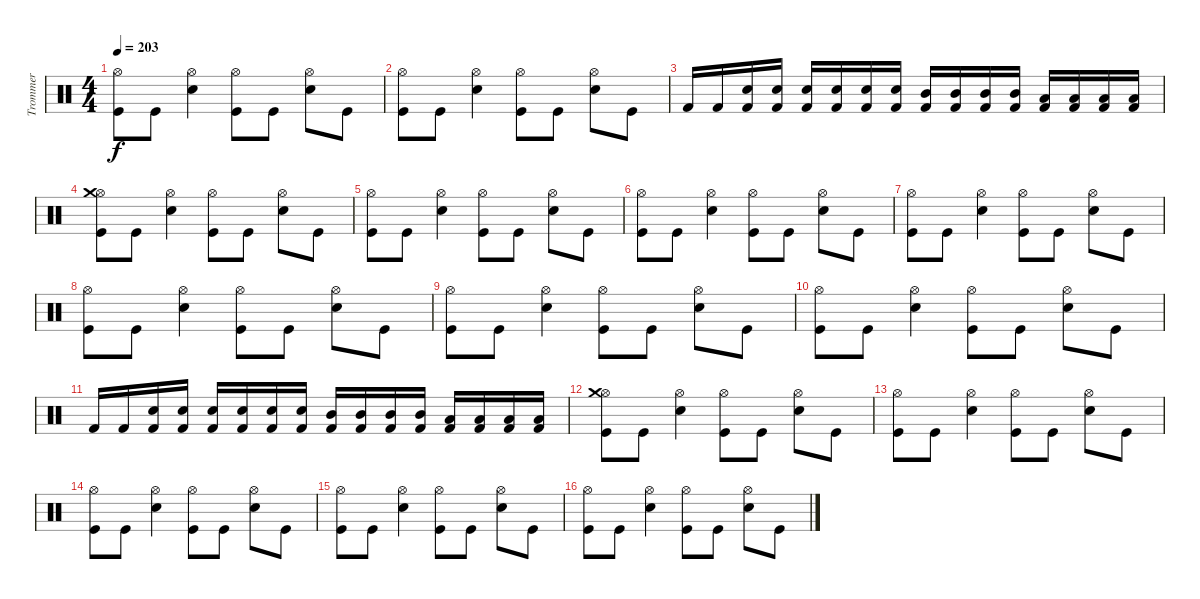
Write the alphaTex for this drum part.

\track ("Trommer" "Trommer") {instrument percussion}
\staff {score}
\articulation defaults
\ts (4 4)
\tempo 203
\clef neutral
\ks c
("Hi-Hat (open)" "Kick (hit)").8{dy f} "Kick (hit)".8 ("Hi-Hat (open)" "Snare (hit) 2").4 ("Hi-Hat (open)" "Kick (hit)").8 "Kick (hit)".8 ("Snare (hit) 2" "Hi-Hat (open)").8 "Kick (hit)".8 |
("Hi-Hat (open)" "Kick (hit)").8 "Kick (hit)".8 ("Hi-Hat (open)" "Snare (hit) 2").4 ("Hi-Hat (open)" "Kick (hit)").8 "Kick (hit)".8 ("Snare (hit) 2" "Hi-Hat (open)").8 "Kick (hit)".8 |
"Kick (hit) 2".16 "Kick (hit) 2".16 ("Snare (hit) 2" "Kick (hit) 2").16 ("Snare (hit) 2" "Kick (hit) 2").16 ("Snare (hit) 2" "Kick (hit) 2").16 ("Snare (hit) 2" "Kick (hit) 2").16 ("Snare (hit) 2" "Kick (hit) 2").16 ("Snare (hit) 2" "Kick (hit) 2").16 ("Mid Tom (hit)" "Kick (hit) 2").16 ("Mid Tom (hit)" "Kick (hit) 2").16 ("Mid Tom (hit)" "Kick (hit) 2").16 ("Mid Tom (hit)" "Kick (hit) 2").16 ("Low Tom (hit)" "Kick (hit) 2").16 ("Low Tom (hit)" "Kick (hit) 2").16 ("Low Tom (hit)" "Kick (hit) 2").16 ("Low Tom (hit)" "Kick (hit) 2").16 |
("Hi-Hat (open)" "Kick (hit)" "Crash medium (hit)").8 "Kick (hit)".8 ("Hi-Hat (open)" "Snare (hit) 2").4 ("Hi-Hat (open)" "Kick (hit)").8 "Kick (hit)".8 ("Snare (hit) 2" "Hi-Hat (open)").8 "Kick (hit)".8 |
("Hi-Hat (open)" "Kick (hit)").8 "Kick (hit)".8 ("Hi-Hat (open)" "Snare (hit) 2").4 ("Hi-Hat (open)" "Kick (hit)").8 "Kick (hit)".8 ("Snare (hit) 2" "Hi-Hat (open)").8 "Kick (hit)".8 |
("Hi-Hat (open)" "Kick (hit)").8 "Kick (hit)".8 ("Hi-Hat (open)" "Snare (hit) 2").4 ("Hi-Hat (open)" "Kick (hit)").8 "Kick (hit)".8 ("Snare (hit) 2" "Hi-Hat (open)").8 "Kick (hit)".8 |
("Hi-Hat (open)" "Kick (hit)").8 "Kick (hit)".8 ("Hi-Hat (open)" "Snare (hit) 2").4 ("Hi-Hat (open)" "Kick (hit)").8 "Kick (hit)".8 ("Snare (hit) 2" "Hi-Hat (open)").8 "Kick (hit)".8 |
("Hi-Hat (open)" "Kick (hit)").8 "Kick (hit)".8 ("Hi-Hat (open)" "Snare (hit) 2").4 ("Hi-Hat (open)" "Kick (hit)").8 "Kick (hit)".8 ("Snare (hit) 2" "Hi-Hat (open)").8 "Kick (hit)".8 |
("Hi-Hat (open)" "Kick (hit)").8 "Kick (hit)".8 ("Hi-Hat (open)" "Snare (hit) 2").4 ("Hi-Hat (open)" "Kick (hit)").8 "Kick (hit)".8 ("Snare (hit) 2" "Hi-Hat (open)").8 "Kick (hit)".8 |
("Hi-Hat (open)" "Kick (hit)").8 "Kick (hit)".8 ("Hi-Hat (open)" "Snare (hit) 2").4 ("Hi-Hat (open)" "Kick (hit)").8 "Kick (hit)".8 ("Snare (hit) 2" "Hi-Hat (open)").8 "Kick (hit)".8 |
"Kick (hit) 2".16 "Kick (hit) 2".16 ("Snare (hit) 2" "Kick (hit) 2").16 ("Snare (hit) 2" "Kick (hit) 2").16 ("Snare (hit) 2" "Kick (hit) 2").16 ("Snare (hit) 2" "Kick (hit) 2").16 ("Snare (hit) 2" "Kick (hit) 2").16 ("Snare (hit) 2" "Kick (hit) 2").16 ("Mid Tom (hit)" "Kick (hit) 2").16 ("Mid Tom (hit)" "Kick (hit) 2").16 ("Mid Tom (hit)" "Kick (hit) 2").16 ("Mid Tom (hit)" "Kick (hit) 2").16 ("Low Tom (hit)" "Kick (hit) 2").16 ("Low Tom (hit)" "Kick (hit) 2").16 ("Low Tom (hit)" "Kick (hit) 2").16 ("Low Tom (hit)" "Kick (hit) 2").16 |
("Hi-Hat (open)" "Kick (hit)" "Crash medium (hit)").8 "Kick (hit)".8 ("Hi-Hat (open)" "Snare (hit) 2").4 ("Hi-Hat (open)" "Kick (hit)").8 "Kick (hit)".8 ("Snare (hit) 2" "Hi-Hat (open)").8 "Kick (hit)".8 |
("Hi-Hat (open)" "Kick (hit)").8 "Kick (hit)".8 ("Hi-Hat (open)" "Snare (hit) 2").4 ("Hi-Hat (open)" "Kick (hit)").8 "Kick (hit)".8 ("Snare (hit) 2" "Hi-Hat (open)").8 "Kick (hit)".8 |
("Hi-Hat (open)" "Kick (hit)").8 "Kick (hit)".8 ("Hi-Hat (open)" "Snare (hit) 2").4 ("Hi-Hat (open)" "Kick (hit)").8 "Kick (hit)".8 ("Snare (hit) 2" "Hi-Hat (open)").8 "Kick (hit)".8 |
("Hi-Hat (open)" "Kick (hit)").8 "Kick (hit)".8 ("Hi-Hat (open)" "Snare (hit) 2").4 ("Hi-Hat (open)" "Kick (hit)").8 "Kick (hit)".8 ("Snare (hit) 2" "Hi-Hat (open)").8 "Kick (hit)".8 |
("Hi-Hat (open)" "Kick (hit)").8 "Kick (hit)".8 ("Hi-Hat (open)" "Snare (hit) 2").4 ("Hi-Hat (open)" "Kick (hit)").8 "Kick (hit)".8 ("Snare (hit) 2" "Hi-Hat (open)").8 "Kick (hit)".8
